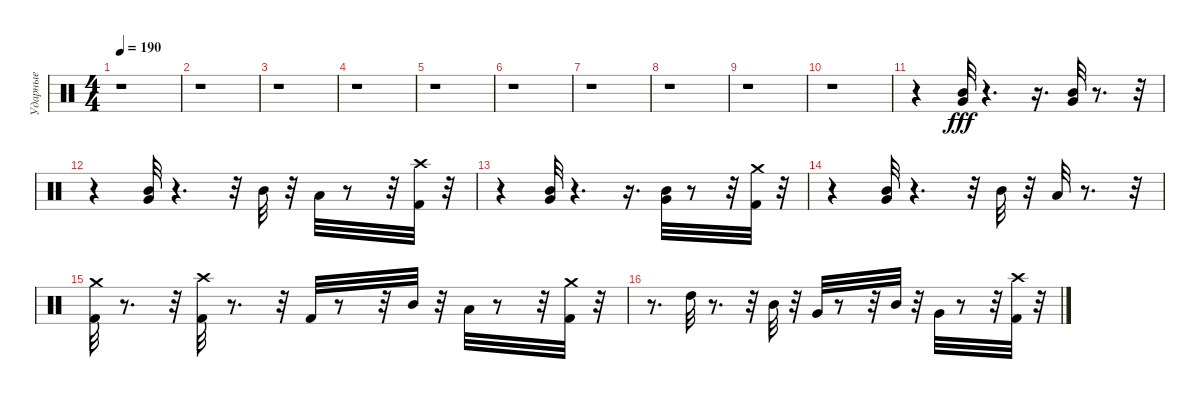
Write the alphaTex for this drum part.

\track ("Ударные" "Ударные") {instrument percussion}
\staff {score}
\articulation defaults
\ts (4 4)
\tempo 190
\clef neutral
\ks c
r.1{dy fff} |
r.1 |
r.1 |
r.1 |
r.1 |
r.1 |
r.1 |
r.1 |
r.1 |
r.1 |
r.4 ("Mid Tom (hit)" "Very Low Tom (hit)").32 r.4{d} r.16{d} ("Mid Tom (hit)" "Very Low Tom (hit)").32 r.8{d} r.32 |
r.4 ("Mid Tom (hit)" "Very Low Tom (hit)").32 r.4{d} r.32 "Mid Tom (hit)".32 r.32 "Low Tom (hit)".32 r.8 r.32 ("Crash high (hit)" "Kick (hit) 2").32 r.32 |
r.4 ("Mid Tom (hit)" "Very Low Tom (hit)").32 r.4{d} r.16{d} ("Mid Tom (hit)" "Very Low Tom (hit)").32 r.8 r.32 ("Kick (hit) 2" "Crash medium (hit)").32 r.32 |
r.4 ("Very Low Tom (hit)" "Mid Tom (hit)").32 r.4{d} r.32 "Mid Tom (hit)".32 r.32 "Low Tom (hit)".32 r.8{d} r.32 |
("Crash medium (hit)" "Kick (hit) 2").32 r.8{d} r.32 ("Kick (hit) 2" "Crash high (hit)").32 r.8{d} r.32 "Kick (hit) 2".32 r.8 r.32 "Mid Tom (hit)".32 r.32 "Low Tom (hit)".32 r.8 r.32 ("Kick (hit) 2" "Crash medium (hit)").32 r.32 |
r.8{d} "High Tom (hit)".32 r.8{d} r.32 "Mid Tom (hit)".32 r.32 "Very Low Tom (hit)".32 r.8 r.32 "Mid Tom (hit)".32 r.32 "Very Low Tom (hit)".32 r.8 r.32 ("Crash high (hit)" "Kick (hit) 2").32 r.32
